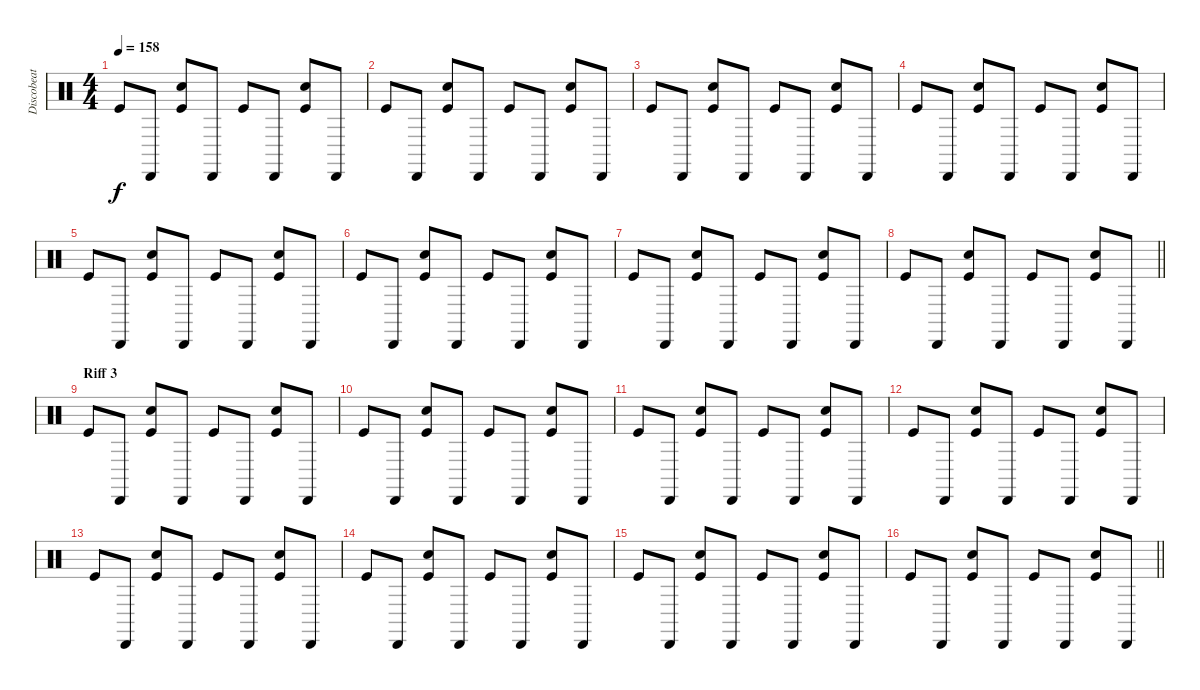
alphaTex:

\track ("Discobeat" "Discobeat") {instrument percussion}
\staff {score}
\articulation defaults
\ts (4 4)
\tempo 158
\clef neutral
\ks c "Kick (hit)".8{dy f} "Cabasa (hit)".8
("Kick (hit)" "Electric Snare (hit)").8 "Cabasa (hit)".8 "Kick (hit)".8 "Cabasa (hit)".8 ("Kick (hit)" "Electric Snare (hit)").8 "Cabasa (hit)".8 |
"Kick (hit)".8 "Cabasa (hit)".8 ("Kick (hit)" "Electric Snare (hit)").8 "Cabasa (hit)".8 "Kick (hit)".8 "Cabasa (hit)".8 ("Kick (hit)" "Electric Snare (hit)").8 "Cabasa (hit)".8 |
"Kick (hit)".8 "Cabasa (hit)".8 ("Kick (hit)" "Electric Snare (hit)").8 "Cabasa (hit)".8 "Kick (hit)".8 "Cabasa (hit)".8 ("Kick (hit)" "Electric Snare (hit)").8 "Cabasa (hit)".8 |
"Kick (hit)".8 "Cabasa (hit)".8 ("Kick (hit)" "Electric Snare (hit)").8 "Cabasa (hit)".8 "Kick (hit)".8 "Cabasa (hit)".8 ("Kick (hit)" "Electric Snare (hit)").8 "Cabasa (hit)".8 |
"Kick (hit)".8 "Cabasa (hit)".8 ("Kick (hit)" "Electric Snare (hit)").8 "Cabasa (hit)".8 "Kick (hit)".8 "Cabasa (hit)".8 ("Kick (hit)" "Electric Snare (hit)").8 "Cabasa (hit)".8 |
"Kick (hit)".8 "Cabasa (hit)".8 ("Kick (hit)" "Electric Snare (hit)").8 "Cabasa (hit)".8 "Kick (hit)".8 "Cabasa (hit)".8 ("Kick (hit)" "Electric Snare (hit)").8 "Cabasa (hit)".8 |
"Kick (hit)".8 "Cabasa (hit)".8 ("Kick (hit)" "Electric Snare (hit)").8 "Cabasa (hit)".8 "Kick (hit)".8 "Cabasa (hit)".8 ("Kick (hit)" "Electric Snare (hit)").8 "Cabasa (hit)".8 |
\barLineRight lightlight "Kick (hit)".8 "Cabasa (hit)".8
("Kick (hit)" "Electric Snare (hit)").8 "Cabasa (hit)".8 "Kick (hit)".8 "Cabasa (hit)".8 ("Kick (hit)" "Electric Snare (hit)").8 "Cabasa (hit)".8 |
\section ("" "Riff 3")
"Kick (hit)".8 "Cabasa (hit)".8 ("Kick (hit)" "Electric Snare (hit)").8 "Cabasa (hit)".8 "Kick (hit)".8 "Cabasa (hit)".8 ("Kick (hit)" "Electric Snare (hit)").8 "Cabasa (hit)".8 |
"Kick (hit)".8 "Cabasa (hit)".8 ("Kick (hit)" "Electric Snare (hit)").8 "Cabasa (hit)".8 "Kick (hit)".8 "Cabasa (hit)".8 ("Kick (hit)" "Electric Snare (hit)").8 "Cabasa (hit)".8 |
"Kick (hit)".8 "Cabasa (hit)".8 ("Kick (hit)" "Electric Snare (hit)").8 "Cabasa (hit)".8 "Kick (hit)".8 "Cabasa (hit)".8 ("Kick (hit)" "Electric Snare (hit)").8 "Cabasa (hit)".8 |
"Kick (hit)".8 "Cabasa (hit)".8 ("Kick (hit)" "Electric Snare (hit)").8 "Cabasa (hit)".8 "Kick (hit)".8 "Cabasa (hit)".8 ("Kick (hit)" "Electric Snare (hit)").8 "Cabasa (hit)".8 |
"Kick (hit)".8 "Cabasa (hit)".8 ("Kick (hit)" "Electric Snare (hit)").8 "Cabasa (hit)".8 "Kick (hit)".8 "Cabasa (hit)".8 ("Kick (hit)" "Electric Snare (hit)").8 "Cabasa (hit)".8 |
"Kick (hit)".8 "Cabasa (hit)".8 ("Kick (hit)" "Electric Snare (hit)").8 "Cabasa (hit)".8 "Kick (hit)".8 "Cabasa (hit)".8 ("Kick (hit)" "Electric Snare (hit)").8 "Cabasa (hit)".8 |
"Kick (hit)".8 "Cabasa (hit)".8 ("Kick (hit)" "Electric Snare (hit)").8 "Cabasa (hit)".8 "Kick (hit)".8 "Cabasa (hit)".8 ("Kick (hit)" "Electric Snare (hit)").8 "Cabasa (hit)".8 |
\barLineRight lightlight "Kick (hit)".8 "Cabasa (hit)".8
("Kick (hit)" "Electric Snare (hit)").8 "Cabasa (hit)".8 "Kick (hit)".8 "Cabasa (hit)".8 ("Kick (hit)" "Electric Snare (hit)").8 "Cabasa (hit)".8
